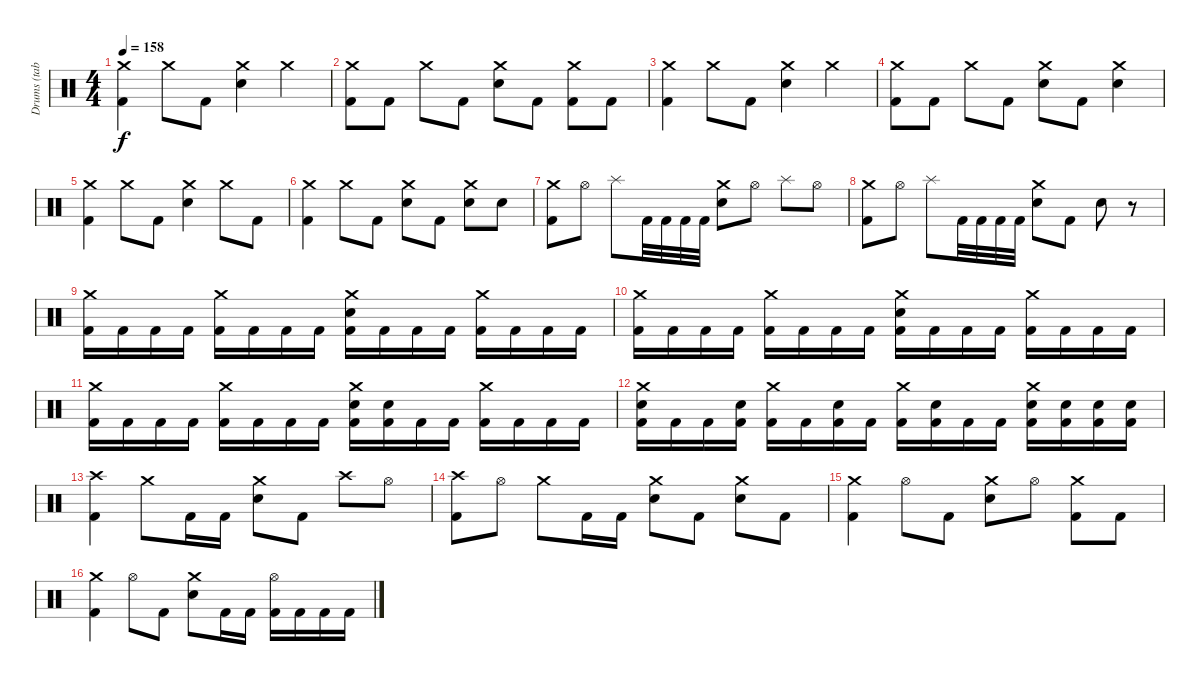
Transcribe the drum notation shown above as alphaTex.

\track ("Drums (tabbed by bassman213293)" "Drums (tab") {instrument percussion}
\staff {score}
\articulation defaults
\ts (4 4)
\tempo 158
\clef neutral
\ks c
("Crash medium (hit)" "Kick (hit) 2").4{dy f} "Crash medium (hit)".8 "Kick (hit) 2".8 ("Crash medium (hit)" "Electric Snare (hit)").4 "Crash medium (hit)".4 |
("Crash medium (hit)" "Kick (hit) 2").8 "Kick (hit) 2".8 "Crash medium (hit)".8 "Kick (hit) 2".8 ("Crash medium (hit)" "Electric Snare (hit)").8 "Kick (hit) 2".8 ("Crash medium (hit)" "Kick (hit) 2").8 "Kick (hit) 2".8 |
("Crash medium (hit)" "Kick (hit) 2").4 "Crash medium (hit)".8 "Kick (hit) 2".8 ("Crash medium (hit)" "Electric Snare (hit)").4 "Crash medium (hit)".4 |
("Crash medium (hit)" "Kick (hit) 2").8 "Kick (hit) 2".8 "Crash medium (hit)".8 "Kick (hit) 2".8 ("Crash medium (hit)" "Electric Snare (hit)").8 "Kick (hit) 2".8 ("Crash medium (hit)" "Electric Snare (hit)").4 |
("Crash medium (hit)" "Kick (hit) 2").4 "Crash medium (hit)".8 "Kick (hit) 2".8 ("Crash medium (hit)" "Electric Snare (hit)").4 "Crash medium (hit)".8 "Kick (hit) 2".8 |
("Crash medium (hit)" "Kick (hit) 2").4 "Crash medium (hit)".8 "Kick (hit) 2".8 ("Crash medium (hit)" "Electric Snare (hit)").8 "Kick (hit) 2".8 ("Crash medium (hit)" "Electric Snare (hit)").8 "Electric Snare (hit)".8 |
("Crash medium (hit)" "Kick (hit) 2").8 "Hi-Hat (open)".8 "Splash (hit)".8 "Kick (hit) 2".32 "Kick (hit) 2".32 "Kick (hit) 2".32 "Kick (hit) 2".32 ("Crash medium (hit)" "Electric Snare (hit)").8 "Hi-Hat (open)".8 "Splash (hit)".8 "Hi-Hat (open)".8 |
("Crash medium (hit)" "Kick (hit) 2").8 "Hi-Hat (open)".8 "Splash (hit)".8 "Kick (hit) 2".32 "Kick (hit) 2".32 "Kick (hit) 2".32 "Kick (hit) 2".32 ("Crash medium (hit)" "Electric Snare (hit)").8 "Kick (hit) 2".8 "Electric Snare (hit)".8 r.8 |
("Crash medium (hit)" "Kick (hit) 2").16 "Kick (hit) 2".16 "Kick (hit) 2".16 "Kick (hit) 2".16 ("Crash medium (hit)" "Kick (hit) 2").16 "Kick (hit) 2".16 "Kick (hit) 2".16 "Kick (hit) 2".16 ("Crash medium (hit)" "Electric Snare (hit)" "Kick (hit) 2").16 "Kick (hit) 2".16 "Kick (hit) 2".16 "Kick (hit) 2".16 ("Crash medium (hit)" "Kick (hit) 2").16 "Kick (hit) 2".16 "Kick (hit) 2".16 "Kick (hit) 2".16 |
("Crash medium (hit)" "Kick (hit) 2").16 "Kick (hit) 2".16 "Kick (hit) 2".16 "Kick (hit) 2".16 ("Crash medium (hit)" "Kick (hit) 2").16 "Kick (hit) 2".16 "Kick (hit) 2".16 "Kick (hit) 2".16 ("Crash medium (hit)" "Electric Snare (hit)" "Kick (hit) 2").16 "Kick (hit) 2".16 "Kick (hit) 2".16 "Kick (hit) 2".16 ("Crash medium (hit)" "Kick (hit) 2").16 "Kick (hit) 2".16 "Kick (hit) 2".16 "Kick (hit) 2".16 |
("Crash medium (hit)" "Kick (hit) 2").16 "Kick (hit) 2".16 "Kick (hit) 2".16 "Kick (hit) 2".16 ("Crash medium (hit)" "Kick (hit) 2").16 "Kick (hit) 2".16 "Kick (hit) 2".16 "Kick (hit) 2".16 ("Crash medium (hit)" "Electric Snare (hit)" "Kick (hit) 2").16 ("Electric Snare (hit)" "Kick (hit) 2").16 "Kick (hit) 2".16 "Kick (hit) 2".16 ("Crash medium (hit)" "Kick (hit) 2").16 "Kick (hit) 2".16 "Kick (hit) 2".16 "Kick (hit) 2".16 |
("Crash medium (hit)" "Electric Snare (hit)" "Kick (hit) 2").16 "Kick (hit) 2".16 "Kick (hit) 2".16 ("Electric Snare (hit)" "Kick (hit) 2").16 ("Crash medium (hit)" "Kick (hit) 2").16 "Kick (hit) 2".16 ("Electric Snare (hit)" "Kick (hit) 2").16 "Kick (hit) 2".16 ("Crash medium (hit)" "Kick (hit) 2").16 ("Electric Snare (hit)" "Kick (hit) 2").16 "Kick (hit) 2".16 "Kick (hit) 2".16 ("Crash medium (hit)" "Electric Snare (hit)" "Kick (hit) 2").16 ("Electric Snare (hit)" "Kick (hit) 2").16 ("Electric Snare (hit)" "Kick (hit) 2").16 ("Electric Snare (hit)" "Kick (hit) 2").16 |
("Crash high (hit)" "Kick (hit) 2").4 "Crash medium (hit)".8 "Kick (hit) 2".16 "Kick (hit) 2".16 ("Crash medium (hit)" "Electric Snare (hit)").8 "Kick (hit) 2".8 "Crash high (hit)".8 "Hi-Hat (open)".8 |
("Crash high (hit)" "Kick (hit) 2").8 "Hi-Hat (open)".8 "Crash medium (hit)".8 "Kick (hit) 2".16 "Kick (hit) 2".16 ("Crash medium (hit)" "Electric Snare (hit)").8 "Kick (hit) 2".8 ("Crash medium (hit)" "Electric Snare (hit)").8 "Kick (hit) 2".8 |
("Crash medium (hit)" "Kick (hit) 2").4 "Hi-Hat (open)".8 "Kick (hit) 2".8 ("Crash medium (hit)" "Electric Snare (hit)").8 "Hi-Hat (open)".8 ("Crash medium (hit)" "Kick (hit) 2").8 "Kick (hit) 2".8 |
("Crash medium (hit)" "Kick (hit) 2").4 "Hi-Hat (open)".8 "Kick (hit) 2".8 ("Crash medium (hit)" "Electric Snare (hit)").8 "Kick (hit) 2".16 "Kick (hit) 2".16 ("Hi-Hat (open)" "Kick (hit) 2").16 "Kick (hit) 2".16 "Kick (hit) 2".16 "Kick (hit) 2".16
